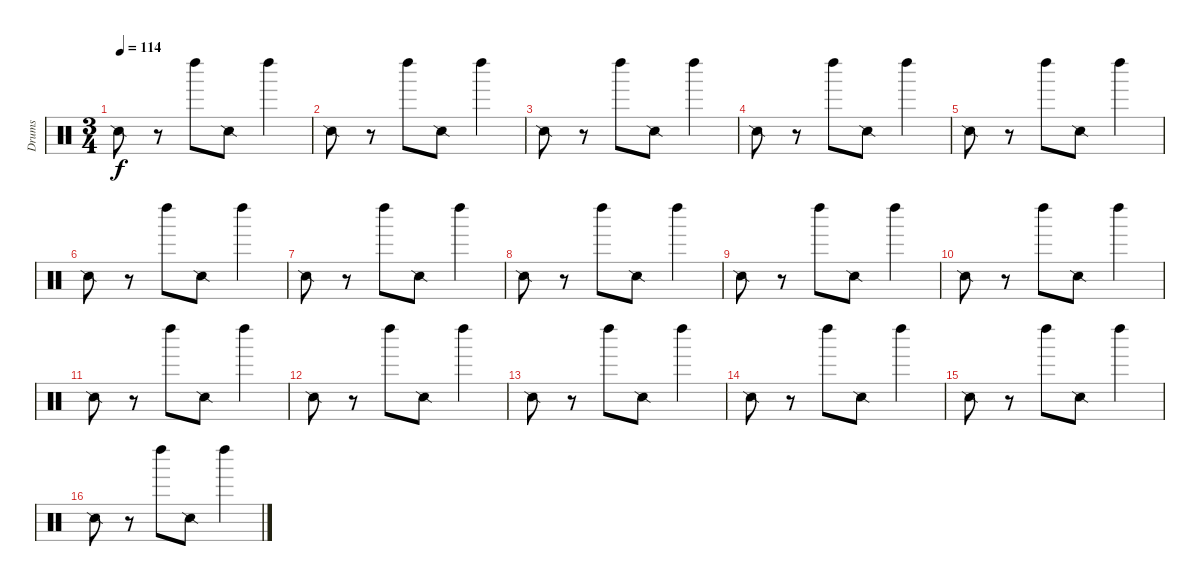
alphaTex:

\track ("Drums" "Drums") {instrument percussion}
\staff {score}
\articulation defaults
\ts (3 4)
\tempo 114
\clef neutral
\ks c "Snare (side stick) 2".8{dy f}
r.8 "Left Maraca (hit)".8 "Snare (side stick) 2".8 "Left Maraca (hit)".4 |
"Snare (side stick) 2".8 r.8 "Left Maraca (hit)".8 "Snare (side stick) 2".8 "Left Maraca (hit)".4 |
"Snare (side stick) 2".8 r.8 "Left Maraca (hit)".8 "Snare (side stick) 2".8 "Left Maraca (hit)".4 |
"Snare (side stick) 2".8 r.8 "Left Maraca (hit)".8 "Snare (side stick) 2".8 "Left Maraca (hit)".4 |
"Snare (side stick) 2".8 r.8 "Left Maraca (hit)".8 "Snare (side stick) 2".8 "Left Maraca (hit)".4 |
"Snare (side stick) 2".8 r.8 "Left Maraca (hit)".8 "Snare (side stick) 2".8 "Left Maraca (hit)".4 |
"Snare (side stick) 2".8 r.8 "Left Maraca (hit)".8 "Snare (side stick) 2".8 "Left Maraca (hit)".4 |
"Snare (side stick) 2".8 r.8 "Left Maraca (hit)".8 "Snare (side stick) 2".8 "Left Maraca (hit)".4 |
"Snare (side stick) 2".8 r.8 "Left Maraca (hit)".8 "Snare (side stick) 2".8 "Left Maraca (hit)".4 |
"Snare (side stick) 2".8 r.8 "Left Maraca (hit)".8 "Snare (side stick) 2".8 "Left Maraca (hit)".4 |
"Snare (side stick) 2".8 r.8 "Left Maraca (hit)".8 "Snare (side stick) 2".8 "Left Maraca (hit)".4 |
"Snare (side stick) 2".8 r.8 "Left Maraca (hit)".8 "Snare (side stick) 2".8 "Left Maraca (hit)".4 |
"Snare (side stick) 2".8 r.8 "Left Maraca (hit)".8 "Snare (side stick) 2".8 "Left Maraca (hit)".4 |
"Snare (side stick) 2".8 r.8 "Left Maraca (hit)".8 "Snare (side stick) 2".8 "Left Maraca (hit)".4 |
"Snare (side stick) 2".8 r.8 "Left Maraca (hit)".8 "Snare (side stick) 2".8 "Left Maraca (hit)".4 |
"Snare (side stick) 2".8 r.8 "Left Maraca (hit)".8 "Snare (side stick) 2".8 "Left Maraca (hit)".4
